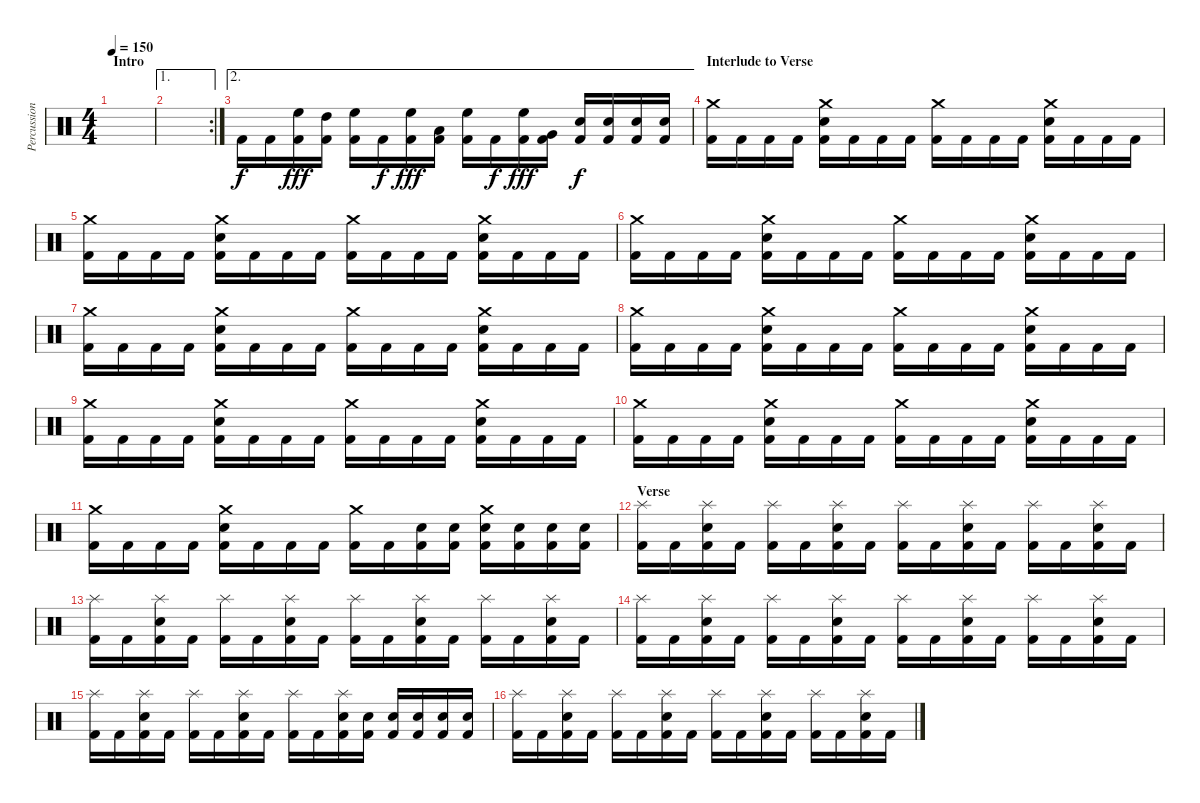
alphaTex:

\track ("Percussion" "Percussion") {instrument percussion}
\staff {score}
\articulation defaults
\ts (4 4)
\section ("" "Intro")
\tempo 150
\clef neutral
\ks c
|
\ae 1
\rc 2
|
\ae 2 "Kick (hit) 2".16 "Kick (hit) 2".16
("High Floor Tom (hit)" "Kick (hit) 2").16{dy fff} ("High Tom (hit)" "Kick (hit) 2").16 ("High Floor Tom (hit)" "Kick (hit) 2").16 "Kick (hit) 2".16{dy f} ("High Floor Tom (hit)" "Kick (hit) 2").16{dy fff} ("Low Tom (hit)" "Kick (hit) 2").16 ("High Floor Tom (hit)" "Kick (hit) 2").16 "Kick (hit) 2".16{dy f} ("High Floor Tom (hit)" "Kick (hit) 2").16{dy fff} ("Very Low Tom (hit)" "Kick (hit) 2").16 ("Electric Snare (hit)" "Kick (hit) 2").16{dy f} ("Electric Snare (hit)" "Kick (hit) 2").16 ("Electric Snare (hit)" "Kick (hit) 2").16 ("Electric Snare (hit)" "Kick (hit) 2").16 |
\section ("" "Interlude to Verse")
("Crash medium (hit)" "Kick (hit) 2").16 "Kick (hit) 2".16 "Kick (hit) 2".16 "Kick (hit) 2".16 ("Crash medium (hit)" "Electric Snare (hit)" "Kick (hit) 2").16 "Kick (hit) 2".16 "Kick (hit) 2".16 "Kick (hit) 2".16 ("Crash medium (hit)" "Kick (hit) 2").16 "Kick (hit) 2".16 "Kick (hit) 2".16 "Kick (hit) 2".16 ("Crash medium (hit)" "Electric Snare (hit)" "Kick (hit) 2").16 "Kick (hit) 2".16 "Kick (hit) 2".16 "Kick (hit) 2".16 |
("Crash medium (hit)" "Kick (hit) 2").16 "Kick (hit) 2".16 "Kick (hit) 2".16 "Kick (hit) 2".16 ("Crash medium (hit)" "Electric Snare (hit)" "Kick (hit) 2").16 "Kick (hit) 2".16 "Kick (hit) 2".16 "Kick (hit) 2".16 ("Crash medium (hit)" "Kick (hit) 2").16 "Kick (hit) 2".16 "Kick (hit) 2".16 "Kick (hit) 2".16 ("Crash medium (hit)" "Electric Snare (hit)" "Kick (hit) 2").16 "Kick (hit) 2".16 "Kick (hit) 2".16 "Kick (hit) 2".16 |
("Crash medium (hit)" "Kick (hit) 2").16 "Kick (hit) 2".16 "Kick (hit) 2".16 "Kick (hit) 2".16 ("Crash medium (hit)" "Electric Snare (hit)" "Kick (hit) 2").16 "Kick (hit) 2".16 "Kick (hit) 2".16 "Kick (hit) 2".16 ("Crash medium (hit)" "Kick (hit) 2").16 "Kick (hit) 2".16 "Kick (hit) 2".16 "Kick (hit) 2".16 ("Crash medium (hit)" "Electric Snare (hit)" "Kick (hit) 2").16 "Kick (hit) 2".16 "Kick (hit) 2".16 "Kick (hit) 2".16 |
("Crash medium (hit)" "Kick (hit) 2").16 "Kick (hit) 2".16 "Kick (hit) 2".16 "Kick (hit) 2".16 ("Crash medium (hit)" "Electric Snare (hit)" "Kick (hit) 2").16 "Kick (hit) 2".16 "Kick (hit) 2".16 "Kick (hit) 2".16 ("Crash medium (hit)" "Kick (hit) 2").16 "Kick (hit) 2".16 "Kick (hit) 2".16 "Kick (hit) 2".16 ("Crash medium (hit)" "Electric Snare (hit)" "Kick (hit) 2").16 "Kick (hit) 2".16 "Kick (hit) 2".16 "Kick (hit) 2".16 |
("Crash medium (hit)" "Kick (hit) 2").16 "Kick (hit) 2".16 "Kick (hit) 2".16 "Kick (hit) 2".16 ("Crash medium (hit)" "Electric Snare (hit)" "Kick (hit) 2").16 "Kick (hit) 2".16 "Kick (hit) 2".16 "Kick (hit) 2".16 ("Crash medium (hit)" "Kick (hit) 2").16 "Kick (hit) 2".16 "Kick (hit) 2".16 "Kick (hit) 2".16 ("Crash medium (hit)" "Electric Snare (hit)" "Kick (hit) 2").16 "Kick (hit) 2".16 "Kick (hit) 2".16 "Kick (hit) 2".16 |
("Crash medium (hit)" "Kick (hit) 2").16 "Kick (hit) 2".16 "Kick (hit) 2".16 "Kick (hit) 2".16 ("Crash medium (hit)" "Electric Snare (hit)" "Kick (hit) 2").16 "Kick (hit) 2".16 "Kick (hit) 2".16 "Kick (hit) 2".16 ("Crash medium (hit)" "Kick (hit) 2").16 "Kick (hit) 2".16 "Kick (hit) 2".16 "Kick (hit) 2".16 ("Crash medium (hit)" "Electric Snare (hit)" "Kick (hit) 2").16 "Kick (hit) 2".16 "Kick (hit) 2".16 "Kick (hit) 2".16 |
("Crash medium (hit)" "Kick (hit) 2").16 "Kick (hit) 2".16 "Kick (hit) 2".16 "Kick (hit) 2".16 ("Crash medium (hit)" "Electric Snare (hit)" "Kick (hit) 2").16 "Kick (hit) 2".16 "Kick (hit) 2".16 "Kick (hit) 2".16 ("Crash medium (hit)" "Kick (hit) 2").16 "Kick (hit) 2".16 "Kick (hit) 2".16 "Kick (hit) 2".16 ("Crash medium (hit)" "Electric Snare (hit)" "Kick (hit) 2").16 "Kick (hit) 2".16 "Kick (hit) 2".16 "Kick (hit) 2".16 |
("Crash medium (hit)" "Kick (hit) 2").16 "Kick (hit) 2".16 "Kick (hit) 2".16 "Kick (hit) 2".16 ("Crash medium (hit)" "Electric Snare (hit)" "Kick (hit) 2").16 "Kick (hit) 2".16 "Kick (hit) 2".16 "Kick (hit) 2".16 ("Crash medium (hit)" "Kick (hit) 2").16 "Kick (hit) 2".16 ("Electric Snare (hit)" "Kick (hit) 2").16 ("Electric Snare (hit)" "Kick (hit) 2").16 ("Crash medium (hit)" "Electric Snare (hit)" "Kick (hit) 2").16 ("Electric Snare (hit)" "Kick (hit) 2").16 ("Electric Snare (hit)" "Kick (hit) 2").16 ("Electric Snare (hit)" "Kick (hit) 2").16 |
\section ("" "Verse")
("Splash (hit)" "Kick (hit) 2").16 "Kick (hit) 2".16 ("Splash (hit)" "Electric Snare (hit)" "Kick (hit) 2").16 "Kick (hit) 2".16 ("Splash (hit)" "Kick (hit) 2").16 "Kick (hit) 2".16 ("Splash (hit)" "Electric Snare (hit)" "Kick (hit) 2").16 "Kick (hit) 2".16 ("Splash (hit)" "Kick (hit) 2").16 "Kick (hit) 2".16 ("Splash (hit)" "Electric Snare (hit)" "Kick (hit) 2").16 "Kick (hit) 2".16 ("Splash (hit)" "Kick (hit) 2").16 "Kick (hit) 2".16 ("Splash (hit)" "Electric Snare (hit)" "Kick (hit) 2").16 "Kick (hit) 2".16 |
("Splash (hit)" "Kick (hit) 2").16 "Kick (hit) 2".16 ("Splash (hit)" "Electric Snare (hit)" "Kick (hit) 2").16 "Kick (hit) 2".16 ("Splash (hit)" "Kick (hit) 2").16 "Kick (hit) 2".16 ("Splash (hit)" "Electric Snare (hit)" "Kick (hit) 2").16 "Kick (hit) 2".16 ("Splash (hit)" "Kick (hit) 2").16 "Kick (hit) 2".16 ("Splash (hit)" "Electric Snare (hit)" "Kick (hit) 2").16 "Kick (hit) 2".16 ("Splash (hit)" "Kick (hit) 2").16 "Kick (hit) 2".16 ("Splash (hit)" "Electric Snare (hit)" "Kick (hit) 2").16 "Kick (hit) 2".16 |
("Splash (hit)" "Kick (hit) 2").16 "Kick (hit) 2".16 ("Splash (hit)" "Electric Snare (hit)" "Kick (hit) 2").16 "Kick (hit) 2".16 ("Splash (hit)" "Kick (hit) 2").16 "Kick (hit) 2".16 ("Splash (hit)" "Electric Snare (hit)" "Kick (hit) 2").16 "Kick (hit) 2".16 ("Splash (hit)" "Kick (hit) 2").16 "Kick (hit) 2".16 ("Splash (hit)" "Electric Snare (hit)" "Kick (hit) 2").16 "Kick (hit) 2".16 ("Splash (hit)" "Kick (hit) 2").16 "Kick (hit) 2".16 ("Splash (hit)" "Electric Snare (hit)" "Kick (hit) 2").16 "Kick (hit) 2".16 |
("Splash (hit)" "Kick (hit) 2").16 "Kick (hit) 2".16 ("Splash (hit)" "Electric Snare (hit)" "Kick (hit) 2").16 "Kick (hit) 2".16 ("Splash (hit)" "Kick (hit) 2").16 "Kick (hit) 2".16 ("Splash (hit)" "Electric Snare (hit)" "Kick (hit) 2").16 "Kick (hit) 2".16 ("Splash (hit)" "Kick (hit) 2").16 "Kick (hit) 2".16 ("Splash (hit)" "Electric Snare (hit)" "Kick (hit) 2").16 ("Electric Snare (hit)" "Kick (hit) 2").16 ("Electric Snare (hit)" "Kick (hit) 2").16 ("Electric Snare (hit)" "Kick (hit) 2").16 ("Electric Snare (hit)" "Kick (hit) 2").16 ("Electric Snare (hit)" "Kick (hit) 2").16 |
("Splash (hit)" "Kick (hit) 2").16 "Kick (hit) 2".16 ("Splash (hit)" "Electric Snare (hit)" "Kick (hit) 2").16 "Kick (hit) 2".16 ("Splash (hit)" "Kick (hit) 2").16 "Kick (hit) 2".16 ("Splash (hit)" "Electric Snare (hit)" "Kick (hit) 2").16 "Kick (hit) 2".16 ("Splash (hit)" "Kick (hit) 2").16 "Kick (hit) 2".16 ("Splash (hit)" "Electric Snare (hit)" "Kick (hit) 2").16 "Kick (hit) 2".16 ("Splash (hit)" "Kick (hit) 2").16 "Kick (hit) 2".16 ("Splash (hit)" "Electric Snare (hit)" "Kick (hit) 2").16 "Kick (hit) 2".16
